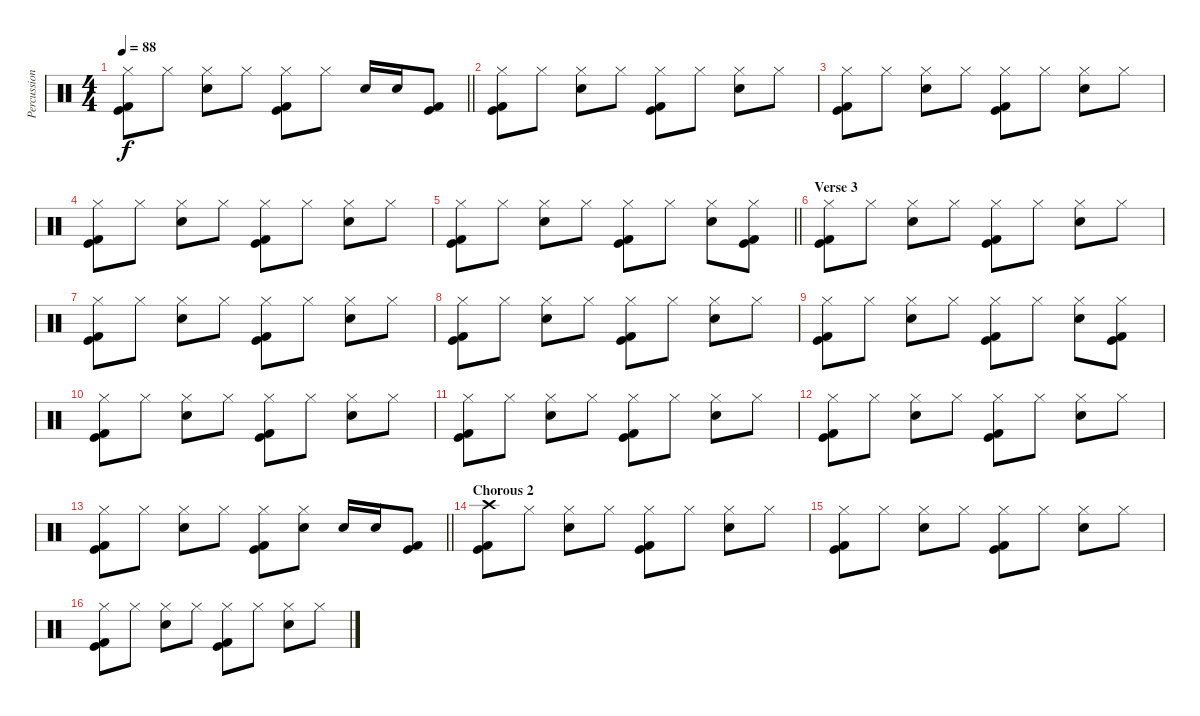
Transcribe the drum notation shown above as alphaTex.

\track ("Percussion" "Percussion") {instrument percussion}
\staff {score}
\articulation defaults
\ts (4 4)
\tempo 88
\clef neutral
\barLineRight lightlight
\ks c
("Hi-Hat (closed)" "Kick (hit)" "Kick (hit) 2").8{dy f} "Hi-Hat (closed)".8 ("Hi-Hat (closed)" "Electric Snare (hit)").8 "Hi-Hat (closed)".8 ("Hi-Hat (closed)" "Kick (hit)" "Kick (hit) 2").8 "Hi-Hat (closed)".8 "Electric Snare (hit)".16 "Electric Snare (hit)".16 ("Kick (hit)" "Kick (hit) 2").8 |
\section ("" "")
("Hi-Hat (closed)" "Kick (hit)" "Kick (hit) 2").8 "Hi-Hat (closed)".8 ("Hi-Hat (closed)" "Electric Snare (hit)").8 "Hi-Hat (closed)".8 ("Hi-Hat (closed)" "Kick (hit)" "Kick (hit) 2").8 "Hi-Hat (closed)".8 ("Hi-Hat (closed)" "Electric Snare (hit)").8 "Hi-Hat (closed)".8 |
("Hi-Hat (closed)" "Kick (hit)" "Kick (hit) 2").8 "Hi-Hat (closed)".8 ("Hi-Hat (closed)" "Electric Snare (hit)").8 "Hi-Hat (closed)".8 ("Hi-Hat (closed)" "Kick (hit)" "Kick (hit) 2").8 "Hi-Hat (closed)".8 ("Hi-Hat (closed)" "Electric Snare (hit)").8 "Hi-Hat (closed)".8 |
("Hi-Hat (closed)" "Kick (hit)" "Kick (hit) 2").8 "Hi-Hat (closed)".8 ("Hi-Hat (closed)" "Electric Snare (hit)").8 "Hi-Hat (closed)".8 ("Hi-Hat (closed)" "Kick (hit)" "Kick (hit) 2").8 "Hi-Hat (closed)".8 ("Hi-Hat (closed)" "Electric Snare (hit)").8 "Hi-Hat (closed)".8 |
\barLineRight lightlight
("Hi-Hat (closed)" "Kick (hit)" "Kick (hit) 2").8 "Hi-Hat (closed)".8 ("Hi-Hat (closed)" "Electric Snare (hit)").8 "Hi-Hat (closed)".8 ("Hi-Hat (closed)" "Kick (hit)" "Kick (hit) 2").8 "Hi-Hat (closed)".8 ("Hi-Hat (closed)" "Electric Snare (hit)").8 ("Hi-Hat (closed)" "Kick (hit)" "Kick (hit) 2").8 |
\section ("" "Verse 3")
("Hi-Hat (closed)" "Kick (hit)" "Kick (hit) 2").8 "Hi-Hat (closed)".8 ("Hi-Hat (closed)" "Electric Snare (hit)").8 "Hi-Hat (closed)".8 ("Hi-Hat (closed)" "Kick (hit)" "Kick (hit) 2").8 "Hi-Hat (closed)".8 ("Hi-Hat (closed)" "Electric Snare (hit)").8 "Hi-Hat (closed)".8 |
("Hi-Hat (closed)" "Kick (hit)" "Kick (hit) 2").8 "Hi-Hat (closed)".8 ("Hi-Hat (closed)" "Electric Snare (hit)").8 "Hi-Hat (closed)".8 ("Hi-Hat (closed)" "Kick (hit)" "Kick (hit) 2").8 "Hi-Hat (closed)".8 ("Hi-Hat (closed)" "Electric Snare (hit)").8 "Hi-Hat (closed)".8 |
("Hi-Hat (closed)" "Kick (hit)" "Kick (hit) 2").8 "Hi-Hat (closed)".8 ("Hi-Hat (closed)" "Electric Snare (hit)").8 "Hi-Hat (closed)".8 ("Hi-Hat (closed)" "Kick (hit)" "Kick (hit) 2").8 "Hi-Hat (closed)".8 ("Hi-Hat (closed)" "Electric Snare (hit)").8 "Hi-Hat (closed)".8 |
("Hi-Hat (closed)" "Kick (hit)" "Kick (hit) 2").8 "Hi-Hat (closed)".8 ("Hi-Hat (closed)" "Electric Snare (hit)").8 "Hi-Hat (closed)".8 ("Hi-Hat (closed)" "Kick (hit)" "Kick (hit) 2").8 "Hi-Hat (closed)".8 ("Hi-Hat (closed)" "Electric Snare (hit)").8 ("Hi-Hat (closed)" "Kick (hit)" "Kick (hit) 2").8 |
("Hi-Hat (closed)" "Kick (hit)" "Kick (hit) 2").8 "Hi-Hat (closed)".8 ("Hi-Hat (closed)" "Electric Snare (hit)").8 "Hi-Hat (closed)".8 ("Hi-Hat (closed)" "Kick (hit)" "Kick (hit) 2").8 "Hi-Hat (closed)".8 ("Hi-Hat (closed)" "Electric Snare (hit)").8 "Hi-Hat (closed)".8 |
("Hi-Hat (closed)" "Kick (hit)" "Kick (hit) 2").8 "Hi-Hat (closed)".8 ("Hi-Hat (closed)" "Electric Snare (hit)").8 "Hi-Hat (closed)".8 ("Hi-Hat (closed)" "Kick (hit)" "Kick (hit) 2").8 "Hi-Hat (closed)".8 ("Hi-Hat (closed)" "Electric Snare (hit)").8 "Hi-Hat (closed)".8 |
("Hi-Hat (closed)" "Kick (hit)" "Kick (hit) 2").8 "Hi-Hat (closed)".8 ("Hi-Hat (closed)" "Electric Snare (hit)").8 "Hi-Hat (closed)".8 ("Hi-Hat (closed)" "Kick (hit)" "Kick (hit) 2").8 "Hi-Hat (closed)".8 ("Hi-Hat (closed)" "Electric Snare (hit)").8 "Hi-Hat (closed)".8 |
\barLineRight lightlight
("Hi-Hat (closed)" "Kick (hit)" "Kick (hit) 2").8 "Hi-Hat (closed)".8 ("Hi-Hat (closed)" "Electric Snare (hit)").8 "Hi-Hat (closed)".8 ("Hi-Hat (closed)" "Kick (hit)" "Kick (hit) 2").8 ("Hi-Hat (closed)" "Electric Snare (hit)").8 "Electric Snare (hit)".16 "Electric Snare (hit)".16 ("Kick (hit)" "Kick (hit) 2").8 |
\section ("" "Chorous 2")
("Crash high (hit)" "Kick (hit)" "Kick (hit) 2").8 "Hi-Hat (closed)".8 ("Hi-Hat (closed)" "Electric Snare (hit)").8 "Hi-Hat (closed)".8 ("Hi-Hat (closed)" "Kick (hit)" "Kick (hit) 2").8 "Hi-Hat (closed)".8 ("Hi-Hat (closed)" "Electric Snare (hit)").8 "Hi-Hat (closed)".8 |
("Hi-Hat (closed)" "Kick (hit)" "Kick (hit) 2").8 "Hi-Hat (closed)".8 ("Hi-Hat (closed)" "Electric Snare (hit)").8 "Hi-Hat (closed)".8 ("Hi-Hat (closed)" "Kick (hit)" "Kick (hit) 2").8 "Hi-Hat (closed)".8 ("Hi-Hat (closed)" "Electric Snare (hit)").8 "Hi-Hat (closed)".8 |
("Hi-Hat (closed)" "Kick (hit)" "Kick (hit) 2").8 "Hi-Hat (closed)".8 ("Hi-Hat (closed)" "Electric Snare (hit)").8 "Hi-Hat (closed)".8 ("Hi-Hat (closed)" "Kick (hit)" "Kick (hit) 2").8 "Hi-Hat (closed)".8 ("Hi-Hat (closed)" "Electric Snare (hit)").8 "Hi-Hat (closed)".8
